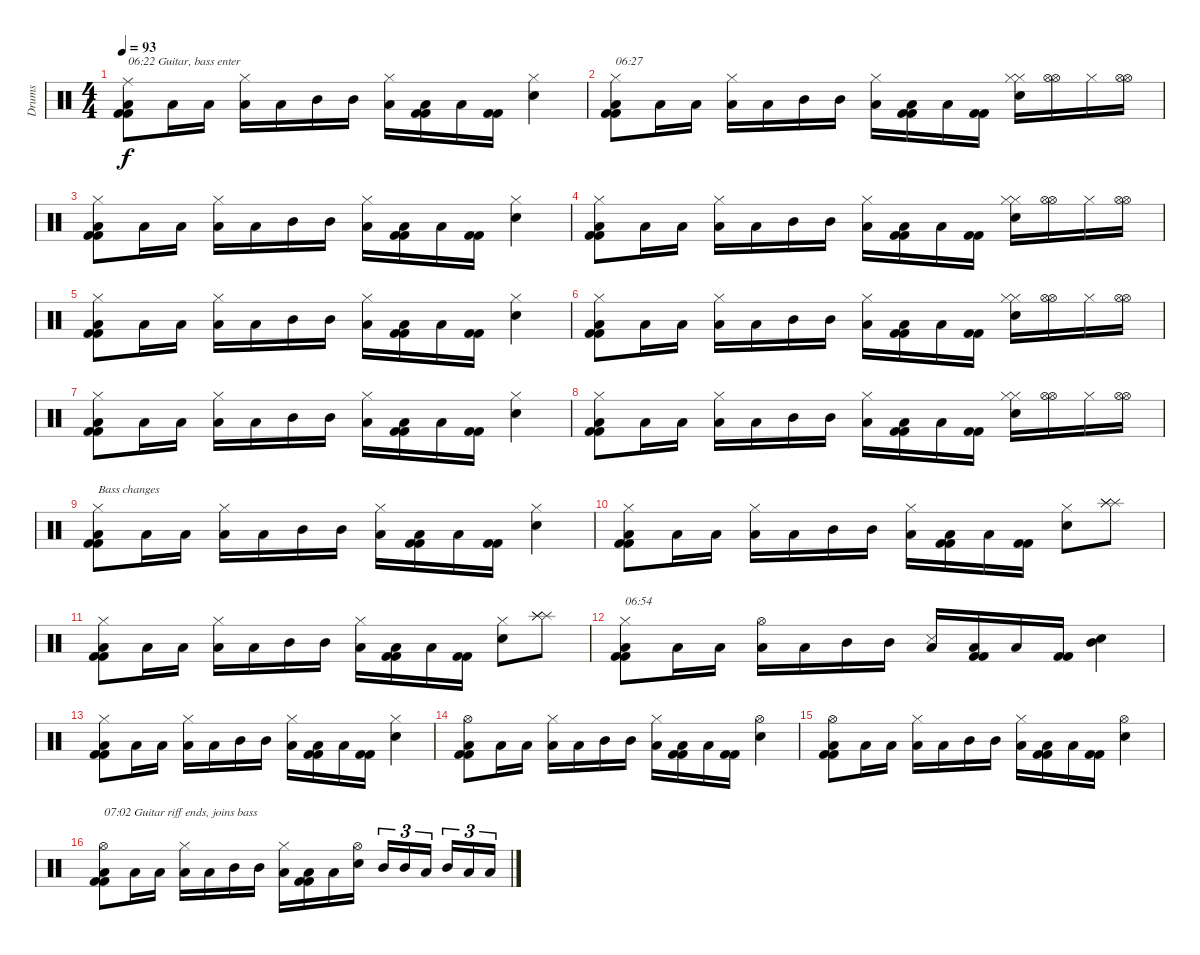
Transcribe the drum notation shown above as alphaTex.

\track ("Drums" "Drums") {instrument percussion}
\staff {score}
\articulation defaults
\ts (4 4)
\tempo 93
\clef neutral
\ks c
("Ride (middle)" "Low Floor Tom (hit)" "Kick (hit) 2" "Kick (hit) 2").8{txt "06:22 Guitar, bass enter" dy f} "Low Floor Tom (hit)".16 "Low Tom (hit)".16 ("Hi-Hat (closed)" "Low Tom (hit)").16 "Low Floor Tom (hit)".16 "Mid Tom (hit)".16 "Mid Tom (hit)".16 ("Hi-Hat (closed)" "Low Floor Tom (hit)").16 ("Low Tom (hit)" "Kick (hit) 2" "Kick (hit) 2").16 "Low Floor Tom (hit)".16 ("Kick (hit) 2" "Kick (hit) 2").16 ("Hi-Hat (closed)" "Snare (hit) 2").4 |
("Hi-Hat (closed)" "Low Floor Tom (hit)" "Kick (hit) 2" "Kick (hit) 2").8{txt "06:27"} "Low Floor Tom (hit)".16 "Low Tom (hit)".16 ("Hi-Hat (closed)" "Low Tom (hit)").16 "Low Floor Tom (hit)".16 "Mid Tom (hit)".16 "Mid Tom (hit)".16 ("Hi-Hat (closed)" "Low Floor Tom (hit)").16 ("Low Tom (hit)" "Kick (hit) 2" "Kick (hit) 2").16 "Low Floor Tom (hit)".16 ("Kick (hit) 2" "Kick (hit) 2").16 ("Hi-Hat (closed)" "Hi-Hat (closed)" "Snare (hit) 2").16 ("Hi-Hat (open)" "Hi-Hat (open)").16 "Hi-Hat (closed)".16 ("Hi-Hat (open)" "Hi-Hat (open)").16 |
("Hi-Hat (closed)" "Low Floor Tom (hit)" "Kick (hit) 2" "Kick (hit) 2").8 "Low Floor Tom (hit)".16 "Low Tom (hit)".16 ("Hi-Hat (closed)" "Low Tom (hit)").16 "Low Floor Tom (hit)".16 "Mid Tom (hit)".16 "Mid Tom (hit)".16 ("Hi-Hat (closed)" "Low Floor Tom (hit)").16 ("Low Tom (hit)" "Kick (hit) 2" "Kick (hit) 2").16 "Low Floor Tom (hit)".16 ("Kick (hit) 2" "Kick (hit) 2").16 ("Hi-Hat (closed)" "Snare (hit) 2").4 |
("Hi-Hat (closed)" "Low Floor Tom (hit)" "Kick (hit) 2" "Kick (hit) 2").8 "Low Floor Tom (hit)".16 "Low Tom (hit)".16 ("Hi-Hat (closed)" "Low Tom (hit)").16 "Low Floor Tom (hit)".16 "Mid Tom (hit)".16 "Mid Tom (hit)".16 ("Hi-Hat (closed)" "Low Floor Tom (hit)").16 ("Low Tom (hit)" "Kick (hit) 2" "Kick (hit) 2").16 "Low Floor Tom (hit)".16 ("Kick (hit) 2" "Kick (hit) 2").16 ("Hi-Hat (closed)" "Hi-Hat (closed)" "Snare (hit) 2").16 ("Hi-Hat (open)" "Hi-Hat (open)").16 "Hi-Hat (closed)".16 ("Hi-Hat (open)" "Hi-Hat (open)").16 |
("Hi-Hat (closed)" "Low Floor Tom (hit)" "Kick (hit) 2" "Kick (hit) 2").8 "Low Floor Tom (hit)".16 "Low Tom (hit)".16 ("Hi-Hat (closed)" "Low Tom (hit)").16 "Low Floor Tom (hit)".16 "Mid Tom (hit)".16 "Mid Tom (hit)".16 ("Hi-Hat (closed)" "Low Floor Tom (hit)").16 ("Low Tom (hit)" "Kick (hit) 2" "Kick (hit) 2").16 "Low Floor Tom (hit)".16 ("Kick (hit) 2" "Kick (hit) 2").16 ("Hi-Hat (closed)" "Snare (hit) 2").4 |
("Hi-Hat (closed)" "Low Floor Tom (hit)" "Kick (hit) 2" "Kick (hit) 2").8 "Low Floor Tom (hit)".16 "Low Tom (hit)".16 ("Hi-Hat (closed)" "Low Tom (hit)").16 "Low Floor Tom (hit)".16 "Mid Tom (hit)".16 "Mid Tom (hit)".16 ("Hi-Hat (closed)" "Low Floor Tom (hit)").16 ("Low Tom (hit)" "Kick (hit) 2" "Kick (hit) 2").16 "Low Floor Tom (hit)".16 ("Kick (hit) 2" "Kick (hit) 2").16 ("Hi-Hat (closed)" "Hi-Hat (closed)" "Snare (hit) 2").16 ("Hi-Hat (open)" "Hi-Hat (open)").16 "Hi-Hat (closed)".16 ("Hi-Hat (open)" "Hi-Hat (open)").16 |
("Hi-Hat (closed)" "Low Floor Tom (hit)" "Kick (hit) 2" "Kick (hit) 2").8 "Low Floor Tom (hit)".16 "Low Tom (hit)".16 ("Hi-Hat (closed)" "Low Tom (hit)").16 "Low Floor Tom (hit)".16 "Mid Tom (hit)".16 "Mid Tom (hit)".16 ("Hi-Hat (closed)" "Low Floor Tom (hit)").16 ("Low Tom (hit)" "Kick (hit) 2" "Kick (hit) 2").16 "Low Floor Tom (hit)".16 ("Kick (hit) 2" "Kick (hit) 2").16 ("Hi-Hat (closed)" "Snare (hit) 2").4 |
("Hi-Hat (closed)" "Low Floor Tom (hit)" "Kick (hit) 2" "Kick (hit) 2").8 "Low Floor Tom (hit)".16 "Low Tom (hit)".16 ("Hi-Hat (closed)" "Low Tom (hit)").16 "Low Floor Tom (hit)".16 "Mid Tom (hit)".16 "Mid Tom (hit)".16 ("Hi-Hat (closed)" "Low Floor Tom (hit)").16 ("Low Tom (hit)" "Kick (hit) 2" "Kick (hit) 2").16 "Low Floor Tom (hit)".16 ("Kick (hit) 2" "Kick (hit) 2").16 ("Hi-Hat (closed)" "Hi-Hat (closed)" "Snare (hit) 2").16 ("Hi-Hat (open)" "Hi-Hat (open)").16 "Hi-Hat (closed)".16 ("Hi-Hat (open)" "Hi-Hat (open)").16 |
("Hi-Hat (closed)" "Low Floor Tom (hit)" "Kick (hit) 2" "Kick (hit) 2").8{txt "Bass changes"} "Low Floor Tom (hit)".16 "Low Tom (hit)".16 ("Hi-Hat (closed)" "Low Tom (hit)").16 "Low Floor Tom (hit)".16 "Mid Tom (hit)".16 "Mid Tom (hit)".16 ("Hi-Hat (closed)" "Low Floor Tom (hit)").16 ("Low Tom (hit)" "Kick (hit) 2" "Kick (hit) 2").16 "Low Floor Tom (hit)".16 ("Kick (hit) 2" "Kick (hit) 2").16 ("Hi-Hat (closed)" "Snare (hit) 2").4 |
("Hi-Hat (closed)" "Low Floor Tom (hit)" "Kick (hit) 2" "Kick (hit) 2").8 "Low Floor Tom (hit)".16 "Low Tom (hit)".16 ("Hi-Hat (closed)" "Low Tom (hit)").16 "Low Floor Tom (hit)".16 "Mid Tom (hit)".16 "Mid Tom (hit)".16 ("Hi-Hat (closed)" "Low Floor Tom (hit)").16 ("Low Tom (hit)" "Kick (hit) 2" "Kick (hit) 2").16 "Low Floor Tom (hit)".16 ("Kick (hit) 2" "Kick (hit) 2").16 ("Hi-Hat (closed)" "Snare (hit) 2").8 ("Splash (hit)" "Splash (hit)" "Splash (hit)").8 |
("Hi-Hat (closed)" "Low Floor Tom (hit)" "Kick (hit) 2" "Kick (hit) 2").8 "Low Floor Tom (hit)".16 "Low Tom (hit)".16 ("Hi-Hat (closed)" "Low Tom (hit)").16 "Low Floor Tom (hit)".16 "Mid Tom (hit)".16 "Mid Tom (hit)".16 ("Hi-Hat (closed)" "Low Floor Tom (hit)").16 ("Low Tom (hit)" "Kick (hit) 2" "Kick (hit) 2").16 "Low Floor Tom (hit)".16 ("Kick (hit) 2" "Kick (hit) 2").16 ("Hi-Hat (closed)" "Snare (hit) 2").8 ("Splash (hit)" "Splash (hit)" "Splash (hit)").8 |
("Hi-Hat (closed)" "Low Floor Tom (hit)" "Kick (hit) 2" "Kick (hit) 2").8{txt "06:54"} "Low Floor Tom (hit)".16 "Low Tom (hit)".16 ("Hi-Hat (open)" "Low Tom (hit)").16 "Low Floor Tom (hit)".16 "Mid Tom (hit)".16 "Mid Tom (hit)".16 ("Snare (side stick) 3" "Low Floor Tom (hit)").16 ("Low Tom (hit)" "Kick (hit) 2" "Kick (hit) 2").16 "Low Floor Tom (hit)".16 ("Kick (hit) 2" "Kick (hit) 2").16 ("Mid Tom (hit)" "Snare (hit) 2").4 |
("Hi-Hat (closed)" "Low Floor Tom (hit)" "Kick (hit) 2" "Kick (hit) 2").8 "Low Floor Tom (hit)".16 "Low Tom (hit)".16 ("Hi-Hat (closed)" "Low Tom (hit)").16 "Low Floor Tom (hit)".16 "Mid Tom (hit)".16 "Mid Tom (hit)".16 ("Hi-Hat (closed)" "Low Floor Tom (hit)").16 ("Low Tom (hit)" "Kick (hit) 2" "Kick (hit) 2").16 "Low Floor Tom (hit)".16 ("Kick (hit) 2" "Kick (hit) 2").16 ("Hi-Hat (closed)" "Snare (hit) 2").4 |
("Hi-Hat (open)" "Low Floor Tom (hit)" "Kick (hit) 2" "Kick (hit) 2").8 "Low Floor Tom (hit)".16 "Low Tom (hit)".16 ("Hi-Hat (closed)" "Low Tom (hit)").16 "Low Floor Tom (hit)".16 "Mid Tom (hit)".16 "Mid Tom (hit)".16 ("Hi-Hat (closed)" "Low Floor Tom (hit)").16 ("Low Tom (hit)" "Kick (hit) 2" "Kick (hit) 2").16 "Low Floor Tom (hit)".16 ("Kick (hit) 2" "Kick (hit) 2").16 ("Hi-Hat (open)" "Snare (hit) 2").4 |
("Hi-Hat (open)" "Low Floor Tom (hit)" "Kick (hit) 2" "Kick (hit) 2").8 "Low Floor Tom (hit)".16 "Low Tom (hit)".16 ("Hi-Hat (closed)" "Low Tom (hit)").16 "Low Floor Tom (hit)".16 "Mid Tom (hit)".16 "Mid Tom (hit)".16 ("Hi-Hat (closed)" "Low Floor Tom (hit)").16 ("Low Tom (hit)" "Kick (hit) 2" "Kick (hit) 2").16 "Low Floor Tom (hit)".16 ("Kick (hit) 2" "Kick (hit) 2").16 ("Hi-Hat (open)" "Snare (hit) 2").4 |
("Hi-Hat (open)" "Low Floor Tom (hit)" "Kick (hit) 2" "Kick (hit) 2").8{txt "07:02 Guitar riff ends, joins bass"} "Low Floor Tom (hit)".16 "Low Tom (hit)".16 ("Hi-Hat (closed)" "Low Tom (hit)").16 "Low Floor Tom (hit)".16 "Mid Tom (hit)".16 "Mid Tom (hit)".16 ("Hi-Hat (closed)" "Low Floor Tom (hit)").16 ("Low Tom (hit)" "Kick (hit) 2" "Kick (hit) 2").16 "Low Floor Tom (hit)".16 ("Hi-Hat (open)" "Snare (hit) 2").16 "Mid Tom (hit)".16{tu (3 2)} "Mid Tom (hit)".16{tu (3 2)} "Low Tom (hit)".16{tu (3 2)} "Mid Tom (hit)".16{tu (3 2)} "Low Tom (hit)".16{tu (3 2)} "Low Floor Tom (hit)".16{tu (3 2)}
